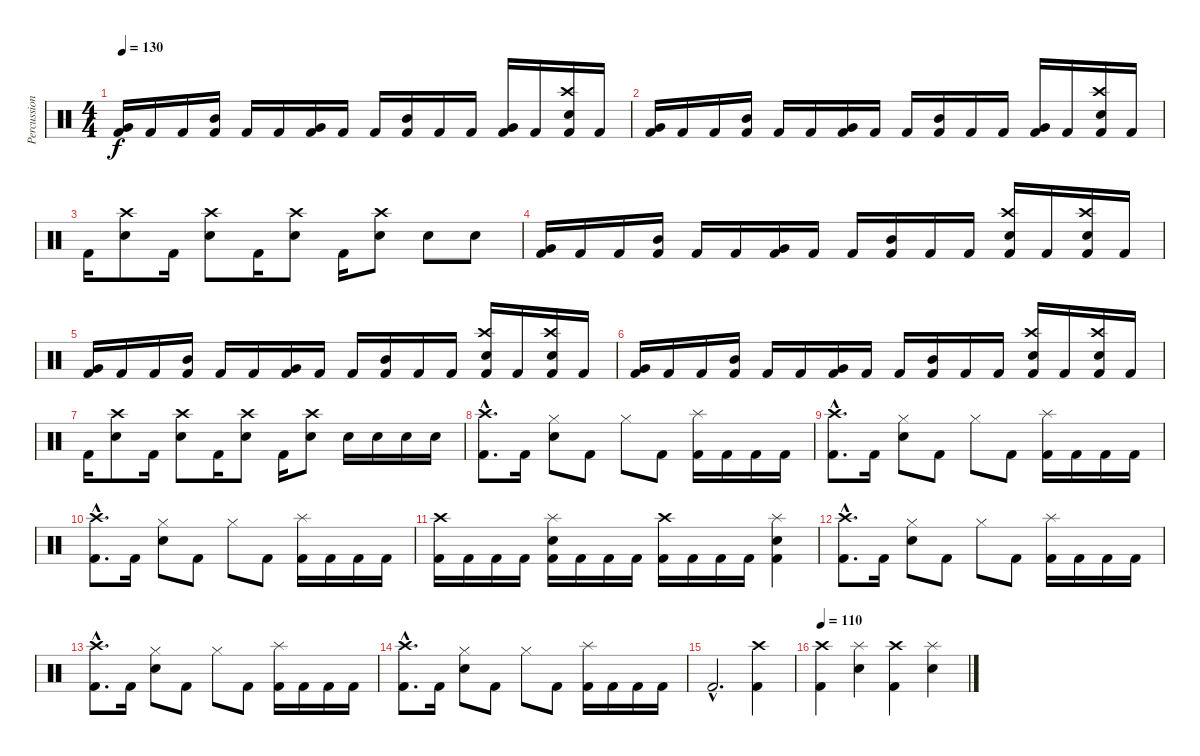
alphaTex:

\track ("Percussions" "Percussion") {instrument percussion}
\staff {score}
\articulation defaults
\ts (4 4)
\tempo 130
\clef neutral
\ks c
("Very Low Tom (hit)" "Kick (hit) 2").16{dy f} "Kick (hit) 2".16 "Kick (hit) 2".16 ("Mid Tom (hit)" "Kick (hit) 2").16 "Kick (hit) 2".16 "Kick (hit) 2".16 ("Very Low Tom (hit)" "Kick (hit) 2").16 "Kick (hit) 2".16 "Kick (hit) 2".16 ("Mid Tom (hit)" "Kick (hit) 2").16 "Kick (hit) 2".16 "Kick (hit) 2".16 ("Very Low Tom (hit)" "Kick (hit) 2").16 "Kick (hit) 2".16 ("Crash high (hit)" "Electric Snare (hit)" "Kick (hit) 2").16 "Kick (hit) 2".16 |
("Very Low Tom (hit)" "Kick (hit) 2").16 "Kick (hit) 2".16 "Kick (hit) 2".16 ("Mid Tom (hit)" "Kick (hit) 2").16 "Kick (hit) 2".16 "Kick (hit) 2".16 ("Very Low Tom (hit)" "Kick (hit) 2").16 "Kick (hit) 2".16 "Kick (hit) 2".16 ("Mid Tom (hit)" "Kick (hit) 2").16 "Kick (hit) 2".16 "Kick (hit) 2".16 ("Very Low Tom (hit)" "Kick (hit) 2").16 "Kick (hit) 2".16 ("Crash high (hit)" "Electric Snare (hit)" "Kick (hit) 2").16 "Kick (hit) 2".16 |
"Kick (hit) 2".16 ("Crash high (hit)" "Electric Snare (hit)").8 "Kick (hit) 2".16 ("Crash high (hit)" "Electric Snare (hit)").8 "Kick (hit) 2".16 ("Crash high (hit)" "Electric Snare (hit)").8 "Kick (hit) 2".16 ("Crash high (hit)" "Electric Snare (hit)").8 "Electric Snare (hit)".8 "Electric Snare (hit)".8 |
("Very Low Tom (hit)" "Kick (hit) 2").16 "Kick (hit) 2".16 "Kick (hit) 2".16 ("Mid Tom (hit)" "Kick (hit) 2").16 "Kick (hit) 2".16 "Kick (hit) 2".16 ("Very Low Tom (hit)" "Kick (hit) 2").16 "Kick (hit) 2".16 "Kick (hit) 2".16 ("Mid Tom (hit)" "Kick (hit) 2").16 "Kick (hit) 2".16 "Kick (hit) 2".16 ("Crash high (hit)" "Electric Snare (hit)" "Kick (hit) 2").16 "Kick (hit) 2".16 ("Crash high (hit)" "Electric Snare (hit)" "Kick (hit) 2").16 "Kick (hit) 2".16 |
("Very Low Tom (hit)" "Kick (hit) 2").16 "Kick (hit) 2".16 "Kick (hit) 2".16 ("Mid Tom (hit)" "Kick (hit) 2").16 "Kick (hit) 2".16 "Kick (hit) 2".16 ("Very Low Tom (hit)" "Kick (hit) 2").16 "Kick (hit) 2".16 "Kick (hit) 2".16 ("Mid Tom (hit)" "Kick (hit) 2").16 "Kick (hit) 2".16 "Kick (hit) 2".16 ("Crash high (hit)" "Electric Snare (hit)" "Kick (hit) 2").16 "Kick (hit) 2".16 ("Crash high (hit)" "Electric Snare (hit)" "Kick (hit) 2").16 "Kick (hit) 2".16 |
("Very Low Tom (hit)" "Kick (hit) 2").16 "Kick (hit) 2".16 "Kick (hit) 2".16 ("Mid Tom (hit)" "Kick (hit) 2").16 "Kick (hit) 2".16 "Kick (hit) 2".16 ("Very Low Tom (hit)" "Kick (hit) 2").16 "Kick (hit) 2".16 "Kick (hit) 2".16 ("Mid Tom (hit)" "Kick (hit) 2").16 "Kick (hit) 2".16 "Kick (hit) 2".16 ("Crash high (hit)" "Electric Snare (hit)" "Kick (hit) 2").16 "Kick (hit) 2".16 ("Crash high (hit)" "Electric Snare (hit)" "Kick (hit) 2").16 "Kick (hit) 2".16 |
"Kick (hit) 2".16 ("Crash high (hit)" "Electric Snare (hit)").8 "Kick (hit) 2".16 ("Crash high (hit)" "Electric Snare (hit)").8 "Kick (hit) 2".16 ("Crash high (hit)" "Electric Snare (hit)").8 "Kick (hit) 2".16 ("Crash high (hit)" "Electric Snare (hit)").8 "Electric Snare (hit)".16 "Electric Snare (hit)".16 "Electric Snare (hit)".16 "Electric Snare (hit)".16 |
("Crash high (hit)"{hac} "Kick (hit) 2"{hac}).8{d} "Kick (hit) 2".16 ("Hi-Hat (closed)" "Electric Snare (hit)").8 "Kick (hit) 2".8 "Hi-Hat (closed)".8 "Kick (hit) 2".8 ("Splash (hit)" "Kick (hit) 2").16 "Kick (hit) 2".16 "Kick (hit) 2".16 "Kick (hit) 2".16 |
("Crash high (hit)"{hac} "Kick (hit) 2"{hac}).8{d} "Kick (hit) 2".16 ("Hi-Hat (closed)" "Electric Snare (hit)").8 "Kick (hit) 2".8 "Hi-Hat (closed)".8 "Kick (hit) 2".8 ("Splash (hit)" "Kick (hit) 2").16 "Kick (hit) 2".16 "Kick (hit) 2".16 "Kick (hit) 2".16 |
("Crash high (hit)"{hac} "Kick (hit) 2"{hac}).8{d} "Kick (hit) 2".16 ("Hi-Hat (closed)" "Electric Snare (hit)").8 "Kick (hit) 2".8 "Hi-Hat (closed)".8 "Kick (hit) 2".8 ("Splash (hit)" "Kick (hit) 2").16 "Kick (hit) 2".16 "Kick (hit) 2".16 "Kick (hit) 2".16 |
("Crash high (hit)" "Kick (hit) 2").16 "Kick (hit) 2".16 "Kick (hit) 2".16 "Kick (hit) 2".16 ("Splash (hit)" "Electric Snare (hit)" "Kick (hit) 2").16 "Kick (hit) 2".16 "Kick (hit) 2".16 "Kick (hit) 2".16 ("Crash high (hit)" "Kick (hit) 2").16 "Kick (hit) 2".16 "Kick (hit) 2".16 "Kick (hit) 2".16 ("Splash (hit)" "Electric Snare (hit)" "Kick (hit) 2").4 |
("Crash high (hit)"{hac} "Kick (hit) 2"{hac}).8{d} "Kick (hit) 2".16 ("Hi-Hat (closed)" "Electric Snare (hit)").8 "Kick (hit) 2".8 "Hi-Hat (closed)".8 "Kick (hit) 2".8 ("Splash (hit)" "Kick (hit) 2").16 "Kick (hit) 2".16 "Kick (hit) 2".16 "Kick (hit) 2".16 |
("Crash high (hit)"{hac} "Kick (hit) 2"{hac}).8{d} "Kick (hit) 2".16 ("Hi-Hat (closed)" "Electric Snare (hit)").8 "Kick (hit) 2".8 "Hi-Hat (closed)".8 "Kick (hit) 2".8 ("Splash (hit)" "Kick (hit) 2").16 "Kick (hit) 2".16 "Kick (hit) 2".16 "Kick (hit) 2".16 |
("Crash high (hit)"{hac} "Kick (hit) 2"{hac}).8{d} "Kick (hit) 2".16 ("Hi-Hat (closed)" "Electric Snare (hit)").8 "Kick (hit) 2".8 "Hi-Hat (closed)".8 "Kick (hit) 2".8 ("Splash (hit)" "Kick (hit) 2").16 "Kick (hit) 2".16 "Kick (hit) 2".16 "Kick (hit) 2".16 |
"Kick (hit) 2"{hac}.2{d} ("Crash high (hit)" "Kick (hit) 2").4 |
\tempo 110
("Crash high (hit)" "Kick (hit) 2").4 ("Splash (hit)" "Electric Snare (hit)").4 ("Crash high (hit)" "Kick (hit) 2").4 ("Splash (hit)" "Electric Snare (hit)").4
